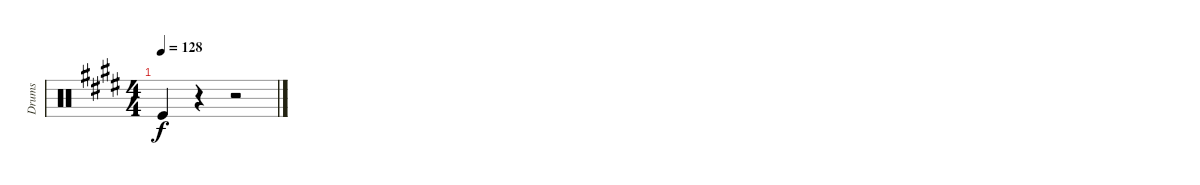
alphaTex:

\track ("Drums" "Drums") {instrument percussion}
\staff {score}
\articulation defaults
\ts (4 4)
\tempo 128
\clef neutral
\ks e "Kick (hit)".4{dy f}
r.4 r.2
